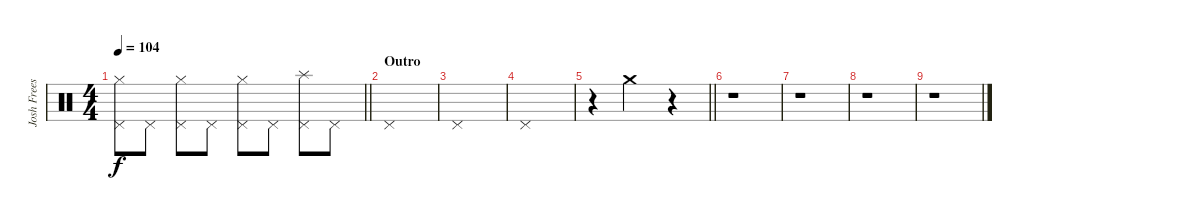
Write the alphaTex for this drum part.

\track ("Josh Freese (Studio Drummer)" "Josh Frees") {instrument percussion}
\staff {score}
\articulation defaults
\ts (4 4)
\tempo 104
\clef neutral
\barLineRight lightlight
\ks c
("Hi-Hat (closed)" "Pedal Hi-Hat (hit)").8{dy f} "Pedal Hi-Hat (hit)".8 ("Hi-Hat (closed)" "Pedal Hi-Hat (hit)").8 "Pedal Hi-Hat (hit)".8 ("Hi-Hat (closed)" "Pedal Hi-Hat (hit)").8 "Pedal Hi-Hat (hit)".8 ("Splash (hit)" "Pedal Hi-Hat (hit)").8 "Pedal Hi-Hat (hit)".8 |
\section ("" "Outro")
"Pedal Hi-Hat (hit)".1 |
"Pedal Hi-Hat (hit)".1 |
"Pedal Hi-Hat (hit)".1 |
\barLineRight lightlight
r.4 "Crash medium (hit)".2 r.4 |
r.1 |
r.1 |
r.1 |
r.1
